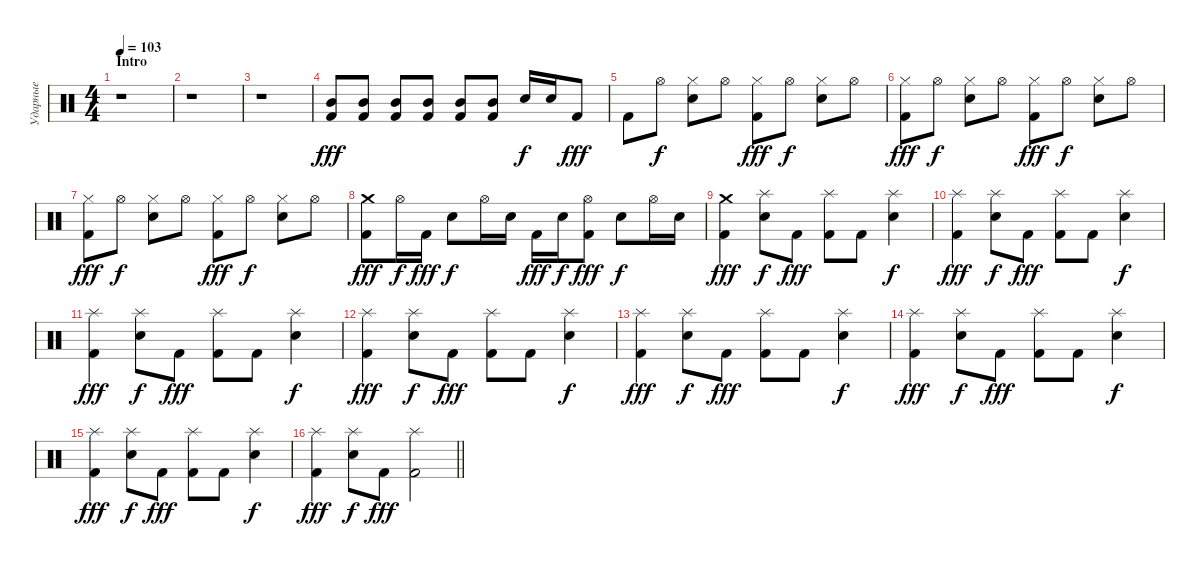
\track ("Ударные" "Ударные") {instrument percussion}
\staff {score}
\articulation defaults
\ts (4 4)
\section ("" "Intro")
\tempo 103
\clef neutral
\ks c
r.1{dy fff} |
r.1 |
r.1 |
("Mid Tom (hit)" "Kick (hit) 2").8 ("Mid Tom (hit)" "Kick (hit) 2").8 ("Mid Tom (hit)" "Kick (hit) 2").8 ("Mid Tom (hit)" "Kick (hit) 2").8 ("Mid Tom (hit)" "Kick (hit) 2").8 ("Mid Tom (hit)" "Kick (hit) 2").8 "Electric Snare (hit)".16{dy f} "Electric Snare (hit)".16 "Kick (hit) 2".8{dy fff} |
"Kick (hit) 2".8 "Hi-Hat (open)".8{dy f} ("Hi-Hat (closed)" "Electric Snare (hit)").8 "Hi-Hat (open)".8 ("Hi-Hat (closed)" "Kick (hit) 2").8{dy fff} "Hi-Hat (open)".8{dy f} ("Hi-Hat (closed)" "Electric Snare (hit)").8 "Hi-Hat (open)".8 |
("Hi-Hat (closed)" "Kick (hit) 2").8{dy fff} "Hi-Hat (open)".8{dy f} ("Hi-Hat (closed)" "Electric Snare (hit)").8 "Hi-Hat (open)".8 ("Hi-Hat (closed)" "Kick (hit) 2").8{dy fff} "Hi-Hat (open)".8{dy f} ("Hi-Hat (closed)" "Electric Snare (hit)").8 "Hi-Hat (open)".8 |
("Hi-Hat (closed)" "Kick (hit) 2").8{dy fff} "Hi-Hat (open)".8{dy f} ("Hi-Hat (closed)" "Electric Snare (hit)").8 "Hi-Hat (open)".8 ("Hi-Hat (closed)" "Kick (hit) 2").8{dy fff} "Hi-Hat (open)".8{dy f} ("Hi-Hat (closed)" "Electric Snare (hit)").8 "Hi-Hat (open)".8 |
("Crash medium (hit)" "Kick (hit) 2").8{dy fff} "Hi-Hat (open)".16{dy f} "Kick (hit) 2".16{dy fff} "Electric Snare (hit)".8{dy f} "Hi-Hat (open)".16 "Electric Snare (hit)".16 "Kick (hit) 2".16{dy fff} "Electric Snare (hit)".16{dy f} ("Hi-Hat (open)" "Kick (hit) 2").8{dy fff} "Electric Snare (hit)".8{dy f} "Hi-Hat (open)".16 "Electric Snare (hit)".16 |
("Crash medium (hit)" "Kick (hit) 2").4{dy fff} ("Splash (hit)" "Electric Snare (hit)").8{dy f} "Kick (hit) 2".8{dy fff} ("Splash (hit)" "Kick (hit) 2").8 "Kick (hit) 2".8 ("Splash (hit)" "Electric Snare (hit)").4{dy f} |
("Splash (hit)" "Kick (hit) 2").4{dy fff} ("Splash (hit)" "Electric Snare (hit)").8{dy f} "Kick (hit) 2".8{dy fff} ("Splash (hit)" "Kick (hit) 2").8 "Kick (hit) 2".8 ("Splash (hit)" "Electric Snare (hit)").4{dy f} |
("Splash (hit)" "Kick (hit) 2").4{dy fff} ("Splash (hit)" "Electric Snare (hit)").8{dy f} "Kick (hit) 2".8{dy fff} ("Splash (hit)" "Kick (hit) 2").8 "Kick (hit) 2".8 ("Splash (hit)" "Electric Snare (hit)").4{dy f} |
("Splash (hit)" "Kick (hit) 2").4{dy fff} ("Splash (hit)" "Electric Snare (hit)").8{dy f} "Kick (hit) 2".8{dy fff} ("Splash (hit)" "Kick (hit) 2").8 "Kick (hit) 2".8 ("Splash (hit)" "Electric Snare (hit)").4{dy f} |
("Splash (hit)" "Kick (hit) 2").4{dy fff} ("Splash (hit)" "Electric Snare (hit)").8{dy f} "Kick (hit) 2".8{dy fff} ("Splash (hit)" "Kick (hit) 2").8 "Kick (hit) 2".8 ("Splash (hit)" "Electric Snare (hit)").4{dy f} |
("Splash (hit)" "Kick (hit) 2").4{dy fff} ("Splash (hit)" "Electric Snare (hit)").8{dy f} "Kick (hit) 2".8{dy fff} ("Splash (hit)" "Kick (hit) 2").8 "Kick (hit) 2".8 ("Splash (hit)" "Electric Snare (hit)").4{dy f} |
("Splash (hit)" "Kick (hit) 2").4{dy fff} ("Splash (hit)" "Electric Snare (hit)").8{dy f} "Kick (hit) 2".8{dy fff} ("Splash (hit)" "Kick (hit) 2").8 "Kick (hit) 2".8 ("Splash (hit)" "Electric Snare (hit)").4{dy f} |
\barLineRight lightlight
("Splash (hit)" "Kick (hit) 2").4{dy fff} ("Splash (hit)" "Electric Snare (hit)").8{dy f} "Kick (hit) 2".8{dy fff} ("Splash (hit)" "Kick (hit) 2").2
